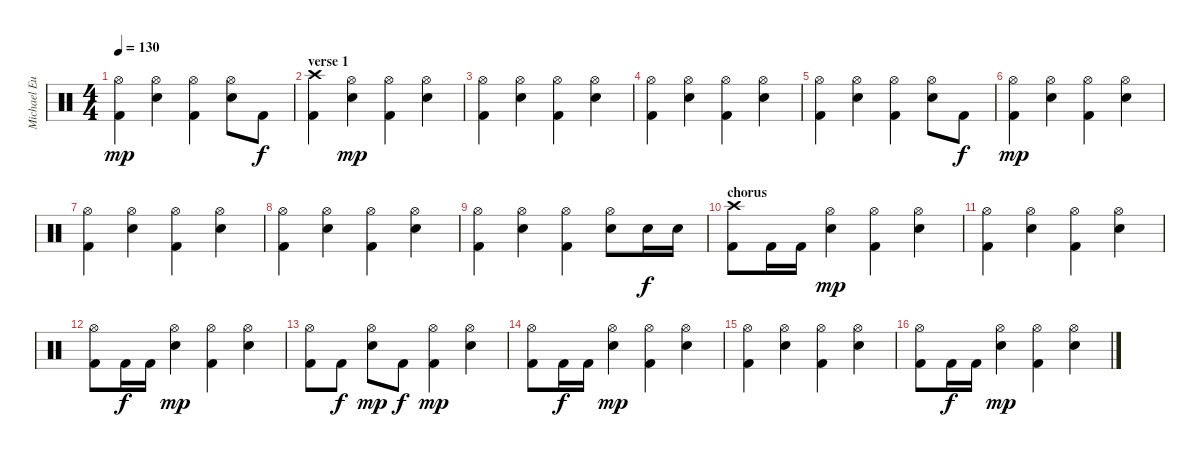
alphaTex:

\track ("Michael Eurich" "Michael Eu") {instrument percussion}
\staff {score}
\articulation defaults
\ts (4 4)
\tempo 130
\clef neutral
\ks c
("Kick (hit) 2" "Hi-Hat (open)").4{dy mp} ("Hi-Hat (open)" "Snare (hit) 2").4 ("Kick (hit) 2" "Hi-Hat (open)").4 ("Hi-Hat (open)" "Snare (hit) 2").8 "Kick (hit) 2".8{dy f} |
\section ("" "verse 1")
("Kick (hit) 2" "Crash high (hit)").4 ("Hi-Hat (open)" "Snare (hit) 2").4{dy mp} ("Kick (hit) 2" "Hi-Hat (open)").4 ("Hi-Hat (open)" "Snare (hit) 2").4 |
("Kick (hit) 2" "Hi-Hat (open)").4 ("Hi-Hat (open)" "Snare (hit) 2").4 ("Kick (hit) 2" "Hi-Hat (open)").4 ("Hi-Hat (open)" "Snare (hit) 2").4 |
("Kick (hit) 2" "Hi-Hat (open)").4 ("Hi-Hat (open)" "Snare (hit) 2").4 ("Kick (hit) 2" "Hi-Hat (open)").4 ("Hi-Hat (open)" "Snare (hit) 2").4 |
("Kick (hit) 2" "Hi-Hat (open)").4 ("Hi-Hat (open)" "Snare (hit) 2").4 ("Kick (hit) 2" "Hi-Hat (open)").4 ("Hi-Hat (open)" "Snare (hit) 2").8 "Kick (hit) 2".8{dy f} |
("Kick (hit) 2" "Hi-Hat (open)").4{dy mp} ("Hi-Hat (open)" "Snare (hit) 2").4 ("Kick (hit) 2" "Hi-Hat (open)").4 ("Hi-Hat (open)" "Snare (hit) 2").4 |
("Kick (hit) 2" "Hi-Hat (open)").4 ("Hi-Hat (open)" "Snare (hit) 2").4 ("Kick (hit) 2" "Hi-Hat (open)").4 ("Hi-Hat (open)" "Snare (hit) 2").4 |
("Kick (hit) 2" "Hi-Hat (open)").4 ("Hi-Hat (open)" "Snare (hit) 2").4 ("Kick (hit) 2" "Hi-Hat (open)").4 ("Hi-Hat (open)" "Snare (hit) 2").4 |
("Kick (hit) 2" "Hi-Hat (open)").4 ("Hi-Hat (open)" "Snare (hit) 2").4 ("Kick (hit) 2" "Hi-Hat (open)").4 ("Hi-Hat (open)" "Snare (hit) 2").8 "Snare (hit) 2".16{dy f} "Snare (hit) 2".16 |
\section ("" "chorus")
("Kick (hit) 2" "Crash high (hit)").8 "Kick (hit) 2".16 "Kick (hit) 2".16 ("Hi-Hat (open)" "Snare (hit) 2").4{dy mp} ("Kick (hit) 2" "Hi-Hat (open)").4 ("Hi-Hat (open)" "Snare (hit) 2").4 |
("Kick (hit) 2" "Hi-Hat (open)").4 ("Hi-Hat (open)" "Snare (hit) 2").4 ("Kick (hit) 2" "Hi-Hat (open)").4 ("Hi-Hat (open)" "Snare (hit) 2").4 |
("Kick (hit) 2" "Hi-Hat (open)").8 "Kick (hit) 2".16{dy f} "Kick (hit) 2".16 ("Hi-Hat (open)" "Snare (hit) 2").4{dy mp} ("Kick (hit) 2" "Hi-Hat (open)").4 ("Hi-Hat (open)" "Snare (hit) 2").4 |
("Kick (hit) 2" "Hi-Hat (open)").8 "Kick (hit) 2".8{dy f} ("Hi-Hat (open)" "Snare (hit) 2").8{dy mp} "Kick (hit) 2".8{dy f} ("Kick (hit) 2" "Hi-Hat (open)").4{dy mp} ("Hi-Hat (open)" "Snare (hit) 2").4 |
("Kick (hit) 2" "Hi-Hat (open)").8 "Kick (hit) 2".16{dy f} "Kick (hit) 2".16 ("Hi-Hat (open)" "Snare (hit) 2").4{dy mp} ("Kick (hit) 2" "Hi-Hat (open)").4 ("Hi-Hat (open)" "Snare (hit) 2").4 |
("Kick (hit) 2" "Hi-Hat (open)").4 ("Hi-Hat (open)" "Snare (hit) 2").4 ("Kick (hit) 2" "Hi-Hat (open)").4 ("Hi-Hat (open)" "Snare (hit) 2").4 |
("Kick (hit) 2" "Hi-Hat (open)").8 "Kick (hit) 2".16{dy f} "Kick (hit) 2".16 ("Hi-Hat (open)" "Snare (hit) 2").4{dy mp} ("Kick (hit) 2" "Hi-Hat (open)").4 ("Hi-Hat (open)" "Snare (hit) 2").4
